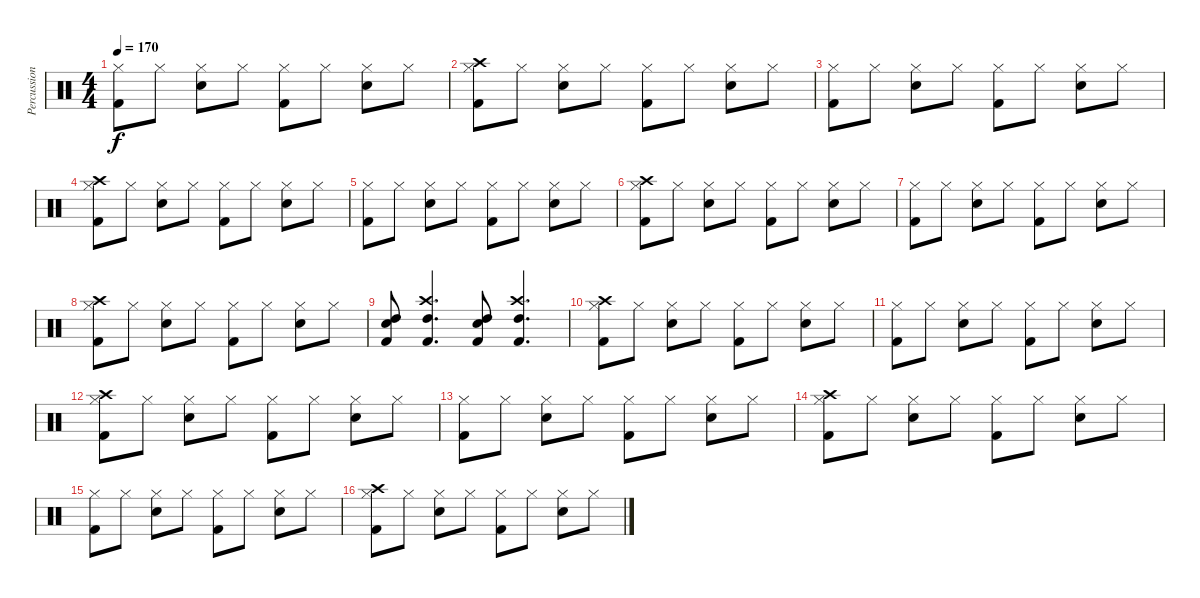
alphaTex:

\track ("Percussion" "Percussion") {instrument percussion}
\staff {score}
\articulation defaults
\ts (4 4)
\tempo 170
\clef neutral
\ks c
("Hi-Hat (closed)" "Kick (hit) 2").8{dy f} "Hi-Hat (closed)".8 ("Hi-Hat (closed)" "Snare (hit) 2").8 "Hi-Hat (closed)".8 ("Hi-Hat (closed)" "Kick (hit) 2").8 "Hi-Hat (closed)".8 ("Hi-Hat (closed)" "Snare (hit) 2").8 "Hi-Hat (closed)".8 |
("Hi-Hat (closed)" "Crash high (hit)" "Kick (hit) 2").8 "Hi-Hat (closed)".8 ("Hi-Hat (closed)" "Snare (hit) 2").8 "Hi-Hat (closed)".8 ("Hi-Hat (closed)" "Kick (hit) 2").8 "Hi-Hat (closed)".8 ("Hi-Hat (closed)" "Snare (hit) 2").8 "Hi-Hat (closed)".8 |
("Hi-Hat (closed)" "Kick (hit) 2").8 "Hi-Hat (closed)".8 ("Hi-Hat (closed)" "Snare (hit) 2").8 "Hi-Hat (closed)".8 ("Hi-Hat (closed)" "Kick (hit) 2").8 "Hi-Hat (closed)".8 ("Hi-Hat (closed)" "Snare (hit) 2").8 "Hi-Hat (closed)".8 |
("Hi-Hat (closed)" "Crash high (hit)" "Kick (hit) 2").8 "Hi-Hat (closed)".8 ("Hi-Hat (closed)" "Snare (hit) 2").8 "Hi-Hat (closed)".8 ("Hi-Hat (closed)" "Kick (hit) 2").8 "Hi-Hat (closed)".8 ("Hi-Hat (closed)" "Snare (hit) 2").8 "Hi-Hat (closed)".8 |
("Hi-Hat (closed)" "Kick (hit) 2").8 "Hi-Hat (closed)".8 ("Hi-Hat (closed)" "Snare (hit) 2").8 "Hi-Hat (closed)".8 ("Hi-Hat (closed)" "Kick (hit) 2").8 "Hi-Hat (closed)".8 ("Hi-Hat (closed)" "Snare (hit) 2").8 "Hi-Hat (closed)".8 |
("Hi-Hat (closed)" "Crash high (hit)" "Kick (hit) 2").8 "Hi-Hat (closed)".8 ("Hi-Hat (closed)" "Snare (hit) 2").8 "Hi-Hat (closed)".8 ("Hi-Hat (closed)" "Kick (hit) 2").8 "Hi-Hat (closed)".8 ("Hi-Hat (closed)" "Snare (hit) 2").8 "Hi-Hat (closed)".8 |
("Hi-Hat (closed)" "Kick (hit) 2").8 "Hi-Hat (closed)".8 ("Hi-Hat (closed)" "Snare (hit) 2").8 "Hi-Hat (closed)".8 ("Hi-Hat (closed)" "Kick (hit) 2").8 "Hi-Hat (closed)".8 ("Hi-Hat (closed)" "Snare (hit) 2").8 "Hi-Hat (closed)".8 |
("Hi-Hat (closed)" "Crash high (hit)" "Kick (hit) 2").8 "Hi-Hat (closed)".8 ("Hi-Hat (closed)" "Snare (hit) 2").8 "Hi-Hat (closed)".8 ("Hi-Hat (closed)" "Kick (hit) 2").8 "Hi-Hat (closed)".8 ("Hi-Hat (closed)" "Snare (hit) 2").8 "Hi-Hat (closed)".8 |
("Snare (hit) 2" "High Tom (hit)" "Kick (hit) 2").8 ("Crash high (hit)" "High Tom (hit)" "Kick (hit) 2").4{d} ("Snare (hit) 2" "High Tom (hit)" "Kick (hit) 2").8 ("Crash high (hit)" "High Tom (hit)" "Kick (hit) 2").4{d} |
("Hi-Hat (closed)" "Crash high (hit)" "Kick (hit) 2").8 "Hi-Hat (closed)".8 ("Hi-Hat (closed)" "Snare (hit) 2").8 "Hi-Hat (closed)".8 ("Hi-Hat (closed)" "Kick (hit) 2").8 "Hi-Hat (closed)".8 ("Hi-Hat (closed)" "Snare (hit) 2").8 "Hi-Hat (closed)".8 |
("Hi-Hat (closed)" "Kick (hit) 2").8 "Hi-Hat (closed)".8 ("Hi-Hat (closed)" "Snare (hit) 2").8 "Hi-Hat (closed)".8 ("Hi-Hat (closed)" "Kick (hit) 2").8 "Hi-Hat (closed)".8 ("Hi-Hat (closed)" "Snare (hit) 2").8 "Hi-Hat (closed)".8 |
("Hi-Hat (closed)" "Crash high (hit)" "Kick (hit) 2").8 "Hi-Hat (closed)".8 ("Hi-Hat (closed)" "Snare (hit) 2").8 "Hi-Hat (closed)".8 ("Hi-Hat (closed)" "Kick (hit) 2").8 "Hi-Hat (closed)".8 ("Hi-Hat (closed)" "Snare (hit) 2").8 "Hi-Hat (closed)".8 |
("Hi-Hat (closed)" "Kick (hit) 2").8 "Hi-Hat (closed)".8 ("Hi-Hat (closed)" "Snare (hit) 2").8 "Hi-Hat (closed)".8 ("Hi-Hat (closed)" "Kick (hit) 2").8 "Hi-Hat (closed)".8 ("Hi-Hat (closed)" "Snare (hit) 2").8 "Hi-Hat (closed)".8 |
("Hi-Hat (closed)" "Crash high (hit)" "Kick (hit) 2").8 "Hi-Hat (closed)".8 ("Hi-Hat (closed)" "Snare (hit) 2").8 "Hi-Hat (closed)".8 ("Hi-Hat (closed)" "Kick (hit) 2").8 "Hi-Hat (closed)".8 ("Hi-Hat (closed)" "Snare (hit) 2").8 "Hi-Hat (closed)".8 |
("Hi-Hat (closed)" "Kick (hit) 2").8 "Hi-Hat (closed)".8 ("Hi-Hat (closed)" "Snare (hit) 2").8 "Hi-Hat (closed)".8 ("Hi-Hat (closed)" "Kick (hit) 2").8 "Hi-Hat (closed)".8 ("Hi-Hat (closed)" "Snare (hit) 2").8 "Hi-Hat (closed)".8 |
("Hi-Hat (closed)" "Crash high (hit)" "Kick (hit) 2").8 "Hi-Hat (closed)".8 ("Hi-Hat (closed)" "Snare (hit) 2").8 "Hi-Hat (closed)".8 ("Hi-Hat (closed)" "Kick (hit) 2").8 "Hi-Hat (closed)".8 ("Hi-Hat (closed)" "Snare (hit) 2").8 "Hi-Hat (closed)".8
